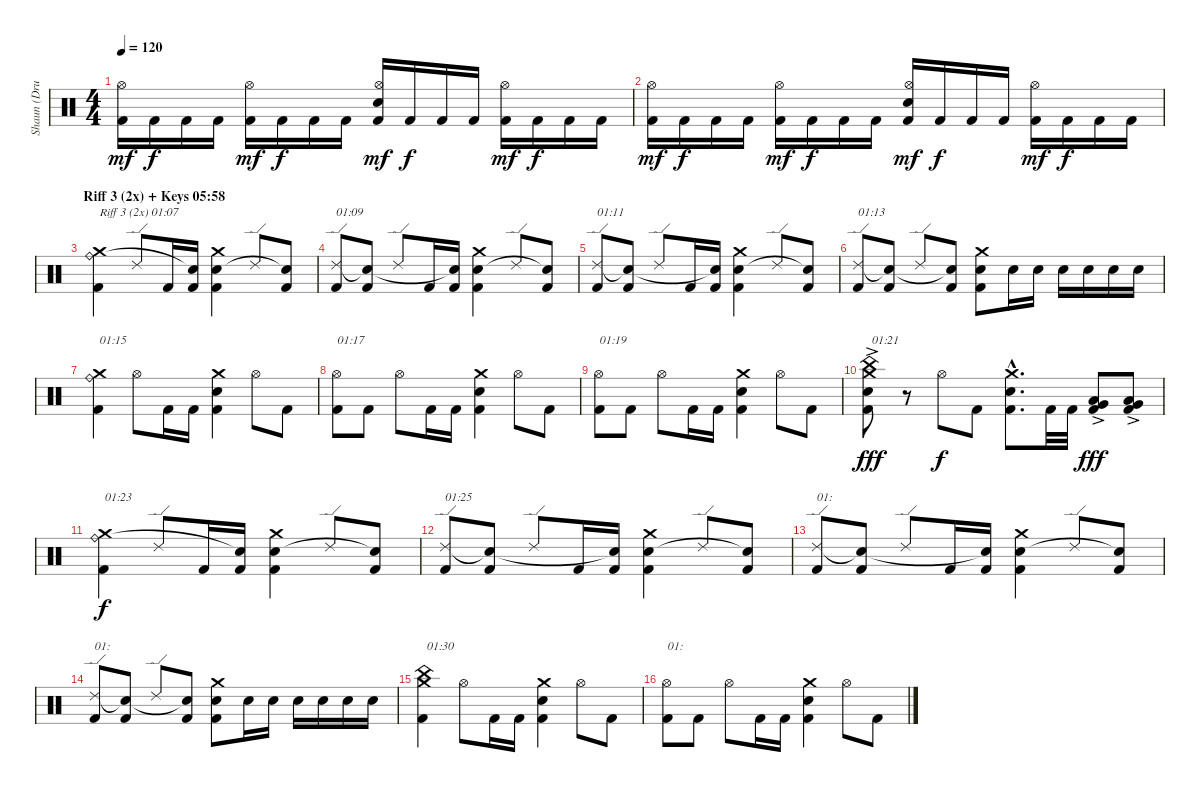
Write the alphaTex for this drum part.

\track ("Shaun (Drums Of DOOM)" "Shaun (Dru") {instrument percussion}
\staff {score}
\articulation defaults
\ts (4 4)
\tempo 120
\clef neutral
\ks c
("Kick (hit) 2" "Hi-Hat (open)").16{dy mf} "Kick (hit) 2".16{dy f} "Kick (hit) 2".16 "Kick (hit) 2".16 ("Kick (hit) 2" "Hi-Hat (open)").16{dy mf} "Kick (hit) 2".16{dy f} "Kick (hit) 2".16 "Kick (hit) 2".16 ("Kick (hit) 2" "Electric Snare (hit)" "Hi-Hat (open)").16{dy mf} "Kick (hit) 2".16{dy f} "Kick (hit) 2".16 "Kick (hit) 2".16 ("Kick (hit) 2" "Hi-Hat (open)").16{dy mf} "Kick (hit) 2".16{dy f} "Kick (hit) 2".16 "Kick (hit) 2".16 |
("Kick (hit) 2" "Hi-Hat (open)").16{dy mf} "Kick (hit) 2".16{dy f} "Kick (hit) 2".16 "Kick (hit) 2".16 ("Kick (hit) 2" "Hi-Hat (open)").16{dy mf} "Kick (hit) 2".16{dy f} "Kick (hit) 2".16 "Kick (hit) 2".16 ("Kick (hit) 2" "Electric Snare (hit)" "Hi-Hat (open)").16{dy mf} "Kick (hit) 2".16{dy f} "Kick (hit) 2".16 "Kick (hit) 2".16 ("Kick (hit) 2" "Hi-Hat (open)").16{dy mf} "Kick (hit) 2".16{dy f} "Kick (hit) 2".16 "Kick (hit) 2".16 |
\section ("" "Riff 3 (2x) + Keys 05:58")
("Kick (hit) 2" "Ride (bell)" "Crash medium (hit)").4{txt "Riff 3 (2x) 01:07"} "Ride (edge) 2".8 "Kick (hit) 2".16 ("Kick (hit) 2" "Snare (hit)"{t}).16 ("Kick (hit) 2" "Electric Snare (hit)" "Crash medium (hit)").4 "Ride (edge) 2".8 ("Kick (hit) 2" "Snare (hit)"{t}).8 |
("Kick (hit) 2" "Ride (edge) 2").8{txt "01:09"} ("Kick (hit) 2" "Snare (hit)"{t}).8 "Ride (edge) 2".8 "Kick (hit) 2".16 ("Kick (hit) 2" "Snare (hit)"{t}).16 ("Kick (hit) 2" "Electric Snare (hit)" "Crash medium (hit)").4 "Ride (edge) 2".8 ("Kick (hit) 2" "Snare (hit)"{t}).8 |
("Kick (hit) 2" "Ride (edge) 2").8{txt "01:11"} ("Kick (hit) 2" "Snare (hit)"{t}).8 "Ride (edge) 2".8 "Kick (hit) 2".16 ("Kick (hit) 2" "Snare (hit)"{t}).16 ("Kick (hit) 2" "Electric Snare (hit)" "Crash medium (hit)").4 "Ride (edge) 2".8 ("Kick (hit) 2" "Snare (hit)"{t}).8 |
("Kick (hit) 2" "Ride (edge) 2").8{txt "01:13"} ("Kick (hit) 2" "Snare (hit)"{t}).8 "Ride (edge) 2".8 ("Kick (hit) 2" "Snare (hit)"{t}).8 ("Kick (hit) 2" "Electric Snare (hit)" "Crash medium (hit)").8 "Electric Snare (hit)".16 "Electric Snare (hit)".16 "Electric Snare (hit)".16 "Electric Snare (hit)".16 "Electric Snare (hit)".16 "Electric Snare (hit)".16 |
("Kick (hit) 2" "Ride (bell)" "Crash medium (hit)").4{txt "01:15"} "Hi-Hat (open)".8 "Kick (hit) 2".16 "Kick (hit) 2".16 ("Kick (hit) 2" "Electric Snare (hit)" "Crash medium (hit)").4 "Hi-Hat (open)".8 "Kick (hit) 2".8 |
("Kick (hit) 2" "Hi-Hat (open)").8{txt "01:17 "} "Kick (hit) 2".8 "Hi-Hat (open)".8 "Kick (hit) 2".16 "Kick (hit) 2".16 ("Kick (hit) 2" "Electric Snare (hit)" "Crash medium (hit)").4 "Hi-Hat (open)".8 "Kick (hit) 2".8 |
("Kick (hit) 2" "Hi-Hat (open)").8{txt "01:19"} "Kick (hit) 2".8 "Hi-Hat (open)".8 "Kick (hit) 2".16 "Kick (hit) 2".16 ("Kick (hit) 2" "Electric Snare (hit)" "Crash medium (hit)").4 "Hi-Hat (open)".8 "Kick (hit) 2".8 |
("Kick (hit) 2" "Electric Snare (hit)" "China (hit)"{ac} "Crash medium (hit)"{ac}).8{txt "01:21" dy fff} r.8 "Hi-Hat (open)".8{dy f} "Kick (hit) 2".8 ("Kick (hit) 2"{hac} "Electric Snare (hit)"{hac} "Crash medium (hit)"{hac}).8{d} "Kick (hit) 2".32 "Kick (hit) 2".32 ("Kick (hit) 2" "Low Floor Tom (hit)"{ac} "Very Low Tom (hit)"{ac}).8{dy fff} ("Kick (hit) 2" "Low Tom (hit)"{ac} "Very Low Tom (hit)"{ac}).8 |
("Kick (hit) 2" "Ride (bell)" "Crash medium (hit)").4{txt "01:23" dy f} "Ride (edge) 2".8 "Kick (hit) 2".16 ("Kick (hit) 2" "Snare (hit)"{t}).16 ("Kick (hit) 2" "Electric Snare (hit)" "Crash medium (hit)").4 "Ride (edge) 2".8 ("Kick (hit) 2" "Snare (hit)"{t}).8 |
("Kick (hit) 2" "Ride (edge) 2").8{txt "01:25"} ("Kick (hit) 2" "Snare (hit)"{t}).8 "Ride (edge) 2".8 "Kick (hit) 2".16 ("Kick (hit) 2" "Snare (hit)"{t}).16 ("Kick (hit) 2" "Electric Snare (hit)" "Crash medium (hit)").4 "Ride (edge) 2".8 ("Kick (hit) 2" "Snare (hit)"{t}).8 |
("Kick (hit) 2" "Ride (edge) 2").8{txt "01:"} ("Kick (hit) 2" "Snare (hit)"{t}).8 "Ride (edge) 2".8 "Kick (hit) 2".16 ("Kick (hit) 2" "Snare (hit)"{t}).16 ("Kick (hit) 2" "Electric Snare (hit)" "Crash medium (hit)").4 "Ride (edge) 2".8 ("Kick (hit) 2" "Snare (hit)"{t}).8 |
("Kick (hit) 2" "Ride (edge) 2").8{txt "01:"} ("Kick (hit) 2" "Snare (hit)"{t}).8 "Ride (edge) 2".8 ("Kick (hit) 2" "Snare (hit)"{t}).8 ("Kick (hit) 2" "Electric Snare (hit)" "Crash medium (hit)").8 "Electric Snare (hit)".16 "Electric Snare (hit)".16 "Electric Snare (hit)".16 "Electric Snare (hit)".16 "Electric Snare (hit)".16 "Electric Snare (hit)".16 |
("Kick (hit) 2" "China (hit)" "Crash medium (hit)").4{txt "01:30"} "Hi-Hat (open)".8 "Kick (hit) 2".16 "Kick (hit) 2".16 ("Kick (hit) 2" "Electric Snare (hit)" "Crash medium (hit)").4 "Hi-Hat (open)".8 "Kick (hit) 2".8 |
("Kick (hit) 2" "Hi-Hat (open)").8{txt "01:"} "Kick (hit) 2".8 "Hi-Hat (open)".8 "Kick (hit) 2".16 "Kick (hit) 2".16 ("Kick (hit) 2" "Electric Snare (hit)" "Crash medium (hit)").4 "Hi-Hat (open)".8 "Kick (hit) 2".8
